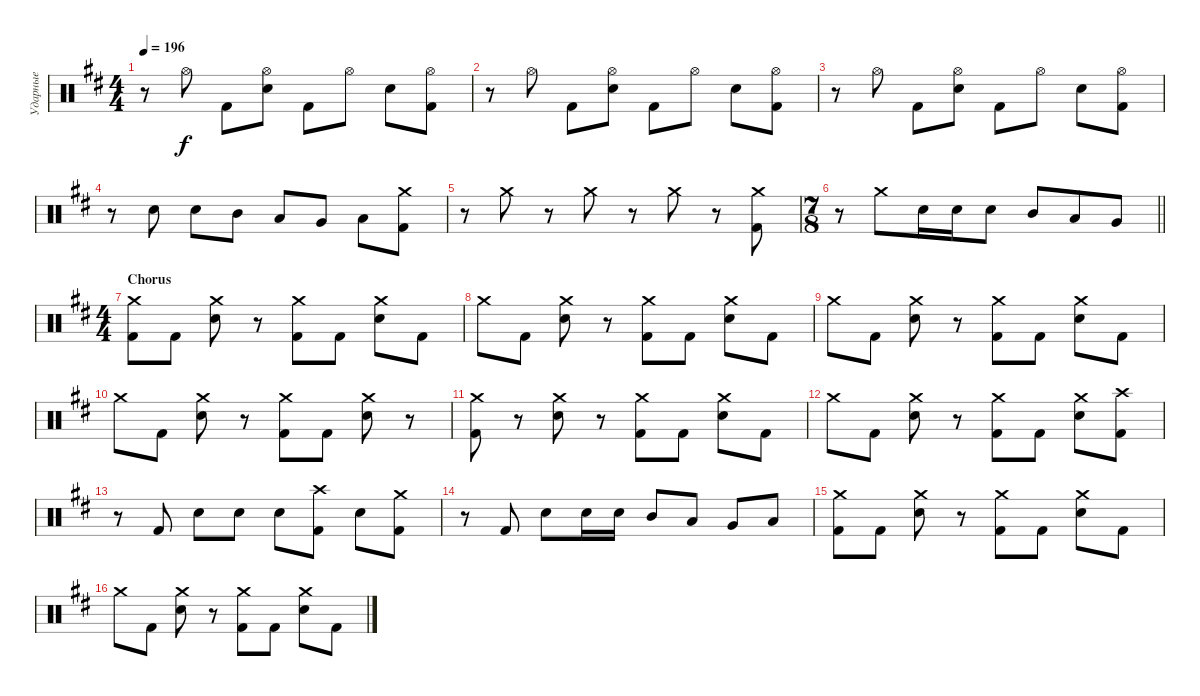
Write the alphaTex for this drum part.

\track ("Ударные" "Ударные") {instrument percussion}
\staff {score}
\articulation defaults
\ts (4 4)
\tempo 196
\clef neutral
\ks d
r.8{dy f} "Hi-Hat (open)".8 "Kick (hit) 2".8 ("Hi-Hat (open)" "Electric Snare (hit)").8 "Kick (hit) 2".8 "Hi-Hat (open)".8 "Electric Snare (hit)".8 ("Hi-Hat (open)" "Kick (hit) 2").8 |
r.8 "Hi-Hat (open)".8 "Kick (hit) 2".8 ("Hi-Hat (open)" "Electric Snare (hit)").8 "Kick (hit) 2".8 "Hi-Hat (open)".8 "Electric Snare (hit)".8 ("Hi-Hat (open)" "Kick (hit) 2").8 |
r.8 "Hi-Hat (open)".8 "Kick (hit) 2".8 ("Hi-Hat (open)" "Electric Snare (hit)").8 "Kick (hit) 2".8 "Hi-Hat (open)".8 "Electric Snare (hit)".8 ("Hi-Hat (open)" "Kick (hit) 2").8 |
r.8 "Electric Snare (hit)".8 "Electric Snare (hit)".8 "Mid Tom (hit)".8 "Low Tom (hit)".8 "Very Low Tom (hit)".8 "Low Floor Tom (hit)".8 ("Crash medium (hit)" "Kick (hit) 2").8 |
r.8 "Crash medium (hit)".8 r.8 "Crash medium (hit)".8 r.8 "Crash medium (hit)".8 r.8 ("Crash medium (hit)" "Kick (hit) 2").8 |
\ts (7 8)
\barLineRight lightlight
r.8 "Crash medium (hit)".8 "Electric Snare (hit)".16 "Electric Snare (hit)".16 "Electric Snare (hit)".8 "Mid Tom (hit)".8 "Low Tom (hit)".8 "Very Low Tom (hit)".8 |
\ts (4 4)
\section ("" "Chorus")
("Crash medium (hit)" "Kick (hit) 2").8 "Kick (hit) 2".8 ("Crash medium (hit)" "Electric Snare (hit)").8 r.8 ("Crash medium (hit)" "Kick (hit) 2").8 "Kick (hit) 2".8 ("Crash medium (hit)" "Electric Snare (hit)").8 "Kick (hit) 2".8 |
"Crash medium (hit)".8 "Kick (hit) 2".8 ("Crash medium (hit)" "Electric Snare (hit)").8 r.8 ("Crash medium (hit)" "Kick (hit) 2").8 "Kick (hit) 2".8 ("Crash medium (hit)" "Electric Snare (hit)").8 "Kick (hit) 2".8 |
"Crash medium (hit)".8 "Kick (hit) 2".8 ("Crash medium (hit)" "Electric Snare (hit)").8 r.8 ("Crash medium (hit)" "Kick (hit) 2").8 "Kick (hit) 2".8 ("Crash medium (hit)" "Electric Snare (hit)").8 "Kick (hit) 2".8 |
"Crash medium (hit)".8 "Kick (hit) 2".8 ("Crash medium (hit)" "Electric Snare (hit)").8 r.8 ("Crash medium (hit)" "Kick (hit) 2").8 "Kick (hit) 2".8 ("Crash medium (hit)" "Electric Snare (hit)").8 r.8 |
("Crash medium (hit)" "Kick (hit) 2").8 r.8 ("Crash medium (hit)" "Electric Snare (hit)").8 r.8 ("Crash medium (hit)" "Kick (hit) 2").8 "Kick (hit) 2".8 ("Crash medium (hit)" "Electric Snare (hit)").8 "Kick (hit) 2".8 |
"Crash medium (hit)".8 "Kick (hit) 2".8 ("Crash medium (hit)" "Electric Snare (hit)").8 r.8 ("Crash medium (hit)" "Kick (hit) 2").8 "Kick (hit) 2".8 ("Crash medium (hit)" "Electric Snare (hit)").8 ("Crash high (hit)" "Kick (hit) 2").8 |
r.8 "Kick (hit) 2".8 "Electric Snare (hit)".8 "Electric Snare (hit)".8 "Electric Snare (hit)".8 ("Crash high (hit)" "Kick (hit) 2").8 "Electric Snare (hit)".8 ("Crash medium (hit)" "Kick (hit) 2").8 |
r.8 "Kick (hit) 2".8 "Electric Snare (hit)".8 "Electric Snare (hit)".16 "Electric Snare (hit)".16 "Mid Tom (hit)".8 "Low Tom (hit)".8 "Very Low Tom (hit)".8 "Low Floor Tom (hit)".8 |
("Crash medium (hit)" "Kick (hit) 2").8 "Kick (hit) 2".8 ("Crash medium (hit)" "Electric Snare (hit)").8 r.8 ("Crash medium (hit)" "Kick (hit) 2").8 "Kick (hit) 2".8 ("Crash medium (hit)" "Electric Snare (hit)").8 "Kick (hit) 2".8 |
"Crash medium (hit)".8 "Kick (hit) 2".8 ("Crash medium (hit)" "Electric Snare (hit)").8 r.8 ("Crash medium (hit)" "Kick (hit) 2").8 "Kick (hit) 2".8 ("Crash medium (hit)" "Electric Snare (hit)").8 "Kick (hit) 2".8
